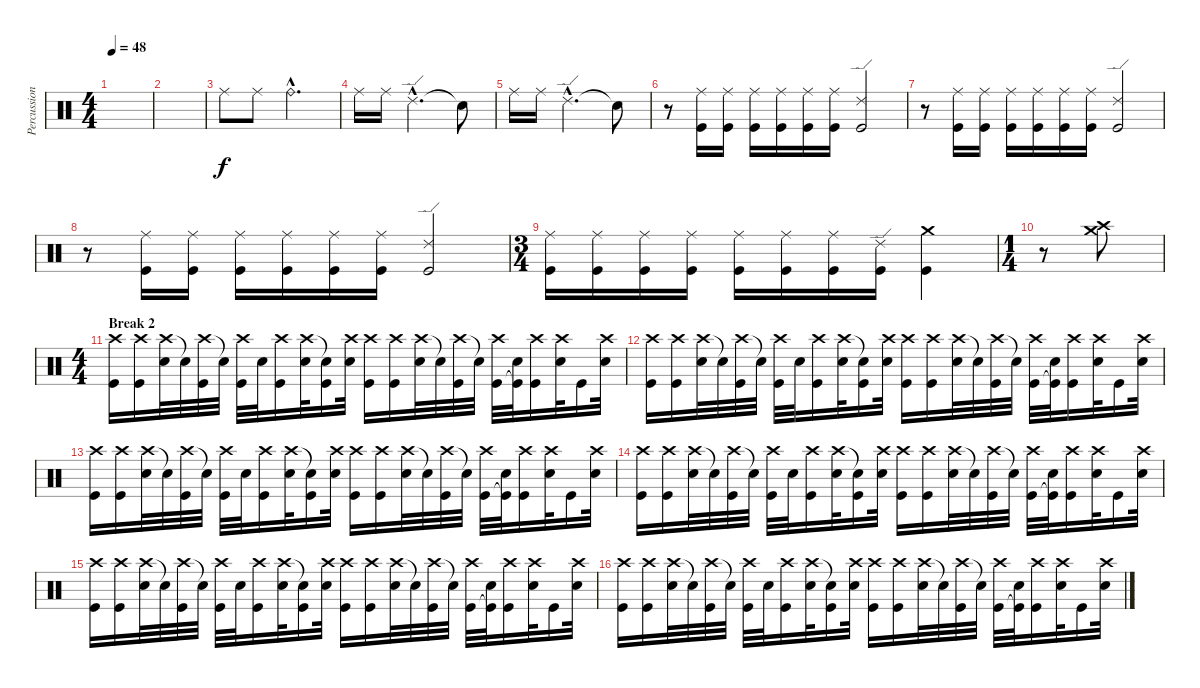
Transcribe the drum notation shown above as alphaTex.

\track ("Percussions" "Percussion") {instrument percussion}
\staff {score}
\articulation defaults
\ts (4 4)
\tempo 48
\clef neutral
\ks c
|
|
"Ride (middle)".8 "Ride (middle)".8 "Ride (bell)"{hac}.2{d} |
"Ride (middle)".16 "Ride (middle)".16 "Ride (edge) 2"{hac}.2{d} "Snare (hit)"{t}.8 |
"Ride (middle)".16 "Ride (middle)".16 "Ride (edge) 2"{hac}.2{d} "Snare (hit)"{t}.8 |
r.8 ("Ride (middle)" "Kick (hit)").16 ("Ride (middle)" "Kick (hit)").16 ("Ride (middle)" "Kick (hit)").16 ("Ride (middle)" "Kick (hit)").16 ("Ride (middle)" "Kick (hit)").16 ("Ride (middle)" "Kick (hit)").16 ("Ride (edge) 2" "Kick (hit)").2 |
r.8 ("Ride (middle)" "Kick (hit)").16 ("Ride (middle)" "Kick (hit)").16 ("Ride (middle)" "Kick (hit)").16 ("Ride (middle)" "Kick (hit)").16 ("Ride (middle)" "Kick (hit)").16 ("Ride (middle)" "Kick (hit)").16 ("Ride (edge) 2" "Kick (hit)").2 |
r.8 ("Ride (middle)" "Kick (hit)").16 ("Ride (middle)" "Kick (hit)").16 ("Ride (middle)" "Kick (hit)").16 ("Ride (middle)" "Kick (hit)").16 ("Ride (middle)" "Kick (hit)").16 ("Ride (middle)" "Kick (hit)").16 ("Ride (edge) 2" "Kick (hit)").2 |
\ts (3 4)
("Ride (middle)" "Kick (hit)").16 ("Ride (middle)" "Kick (hit)").16 ("Ride (middle)" "Kick (hit)").16 ("Ride (middle)" "Kick (hit)").16 ("Ride (middle)" "Kick (hit)").16 ("Ride (middle)" "Kick (hit)").16 ("Ride (middle)" "Kick (hit)").16 ("Ride (edge) 2" "Kick (hit)").16 ("Crash medium (hit)" "Kick (hit)").4 |
\ts (1 4)
r.8 ("Crash high (hit)" "Crash medium (hit)").8 |
\ts (4 4)
\section ("" "Break 2")
("Crash high (hit)" "Kick (hit)").16 ("Crash high (hit)" "Kick (hit)").16 ("Crash high (hit)" "Electric Snare (hit)").32 "Snare (hit)"{t}.32 ("Crash high (hit)" "Kick (hit)").32 "Snare (hit)"{t}.32 ("Crash high (hit)" "Kick (hit)").32 "Electric Snare (hit)".32 ("Crash high (hit)" "Kick (hit)").16 ("Crash high (hit)" "Electric Snare (hit)").32 ("Snare (hit)"{t} "Kick (hit)").16 ("Crash high (hit)" "Electric Snare (hit)").32 ("Crash high (hit)" "Kick (hit)").16 ("Crash high (hit)" "Kick (hit)").16 ("Crash high (hit)" "Electric Snare (hit)").32 "Snare (hit)"{t}.32 ("Crash high (hit)" "Kick (hit)").32 "Snare (hit)"{t}.32 ("Crash high (hit)" "Kick (hit)").32 ("Electric Snare (hit)" "Kick (hit)"{t}).32 ("Crash high (hit)" "Kick (hit)").16 ("Crash high (hit)" "Electric Snare (hit)").32 "Kick (hit)".16 ("Crash high (hit)" "Electric Snare (hit)").32 |
("Crash high (hit)" "Kick (hit)").16 ("Crash high (hit)" "Kick (hit)").16 ("Crash high (hit)" "Electric Snare (hit)").32 "Snare (hit)"{t}.32 ("Crash high (hit)" "Kick (hit)").32 "Snare (hit)"{t}.32 ("Crash high (hit)" "Kick (hit)").32 "Electric Snare (hit)".32 ("Crash high (hit)" "Kick (hit)").16 ("Crash high (hit)" "Electric Snare (hit)").32 ("Snare (hit)"{t} "Kick (hit)").16 ("Crash high (hit)" "Electric Snare (hit)").32 ("Crash high (hit)" "Kick (hit)").16 ("Crash high (hit)" "Kick (hit)").16 ("Crash high (hit)" "Electric Snare (hit)").32 "Snare (hit)"{t}.32 ("Crash high (hit)" "Kick (hit)").32 "Snare (hit)"{t}.32 ("Crash high (hit)" "Kick (hit)").32 ("Electric Snare (hit)" "Kick (hit)"{t}).32 ("Crash high (hit)" "Kick (hit)").16 ("Crash high (hit)" "Electric Snare (hit)").32 "Kick (hit)".16 ("Crash high (hit)" "Electric Snare (hit)").32 |
("Crash high (hit)" "Kick (hit)").16 ("Crash high (hit)" "Kick (hit)").16 ("Crash high (hit)" "Electric Snare (hit)").32 "Snare (hit)"{t}.32 ("Crash high (hit)" "Kick (hit)").32 "Snare (hit)"{t}.32 ("Crash high (hit)" "Kick (hit)").32 "Electric Snare (hit)".32 ("Crash high (hit)" "Kick (hit)").16 ("Crash high (hit)" "Electric Snare (hit)").32 ("Snare (hit)"{t} "Kick (hit)").16 ("Crash high (hit)" "Electric Snare (hit)").32 ("Crash high (hit)" "Kick (hit)").16 ("Crash high (hit)" "Kick (hit)").16 ("Crash high (hit)" "Electric Snare (hit)").32 "Snare (hit)"{t}.32 ("Crash high (hit)" "Kick (hit)").32 "Snare (hit)"{t}.32 ("Crash high (hit)" "Kick (hit)").32 ("Electric Snare (hit)" "Kick (hit)"{t}).32 ("Crash high (hit)" "Kick (hit)").16 ("Crash high (hit)" "Electric Snare (hit)").32 "Kick (hit)".16 ("Crash high (hit)" "Electric Snare (hit)").32 |
("Crash high (hit)" "Kick (hit)").16 ("Crash high (hit)" "Kick (hit)").16 ("Crash high (hit)" "Electric Snare (hit)").32 "Snare (hit)"{t}.32 ("Crash high (hit)" "Kick (hit)").32 "Snare (hit)"{t}.32 ("Crash high (hit)" "Kick (hit)").32 "Electric Snare (hit)".32 ("Crash high (hit)" "Kick (hit)").16 ("Crash high (hit)" "Electric Snare (hit)").32 ("Snare (hit)"{t} "Kick (hit)").16 ("Crash high (hit)" "Electric Snare (hit)").32 ("Crash high (hit)" "Kick (hit)").16 ("Crash high (hit)" "Kick (hit)").16 ("Crash high (hit)" "Electric Snare (hit)").32 "Snare (hit)"{t}.32 ("Crash high (hit)" "Kick (hit)").32 "Snare (hit)"{t}.32 ("Crash high (hit)" "Kick (hit)").32 ("Electric Snare (hit)" "Kick (hit)"{t}).32 ("Crash high (hit)" "Kick (hit)").16 ("Crash high (hit)" "Electric Snare (hit)").32 "Kick (hit)".16 ("Crash high (hit)" "Electric Snare (hit)").32 |
("Crash high (hit)" "Kick (hit)").16 ("Crash high (hit)" "Kick (hit)").16 ("Crash high (hit)" "Electric Snare (hit)").32 "Snare (hit)"{t}.32 ("Crash high (hit)" "Kick (hit)").32 "Snare (hit)"{t}.32 ("Crash high (hit)" "Kick (hit)").32 "Electric Snare (hit)".32 ("Crash high (hit)" "Kick (hit)").16 ("Crash high (hit)" "Electric Snare (hit)").32 ("Snare (hit)"{t} "Kick (hit)").16 ("Crash high (hit)" "Electric Snare (hit)").32 ("Crash high (hit)" "Kick (hit)").16 ("Crash high (hit)" "Kick (hit)").16 ("Crash high (hit)" "Electric Snare (hit)").32 "Snare (hit)"{t}.32 ("Crash high (hit)" "Kick (hit)").32 "Snare (hit)"{t}.32 ("Crash high (hit)" "Kick (hit)").32 ("Electric Snare (hit)" "Kick (hit)"{t}).32 ("Crash high (hit)" "Kick (hit)").16 ("Crash high (hit)" "Electric Snare (hit)").32 "Kick (hit)".16 ("Crash high (hit)" "Electric Snare (hit)").32 |
("Crash high (hit)" "Kick (hit)").16 ("Crash high (hit)" "Kick (hit)").16 ("Crash high (hit)" "Electric Snare (hit)").32 "Snare (hit)"{t}.32 ("Crash high (hit)" "Kick (hit)").32 "Snare (hit)"{t}.32 ("Crash high (hit)" "Kick (hit)").32 "Electric Snare (hit)".32 ("Crash high (hit)" "Kick (hit)").16 ("Crash high (hit)" "Electric Snare (hit)").32 ("Snare (hit)"{t} "Kick (hit)").16 ("Crash high (hit)" "Electric Snare (hit)").32 ("Crash high (hit)" "Kick (hit)").16 ("Crash high (hit)" "Kick (hit)").16 ("Crash high (hit)" "Electric Snare (hit)").32 "Snare (hit)"{t}.32 ("Crash high (hit)" "Kick (hit)").32 "Snare (hit)"{t}.32 ("Crash high (hit)" "Kick (hit)").32 ("Electric Snare (hit)" "Kick (hit)"{t}).32 ("Crash high (hit)" "Kick (hit)").16 ("Crash high (hit)" "Electric Snare (hit)").32 "Kick (hit)".16 ("Crash high (hit)" "Electric Snare (hit)").32
